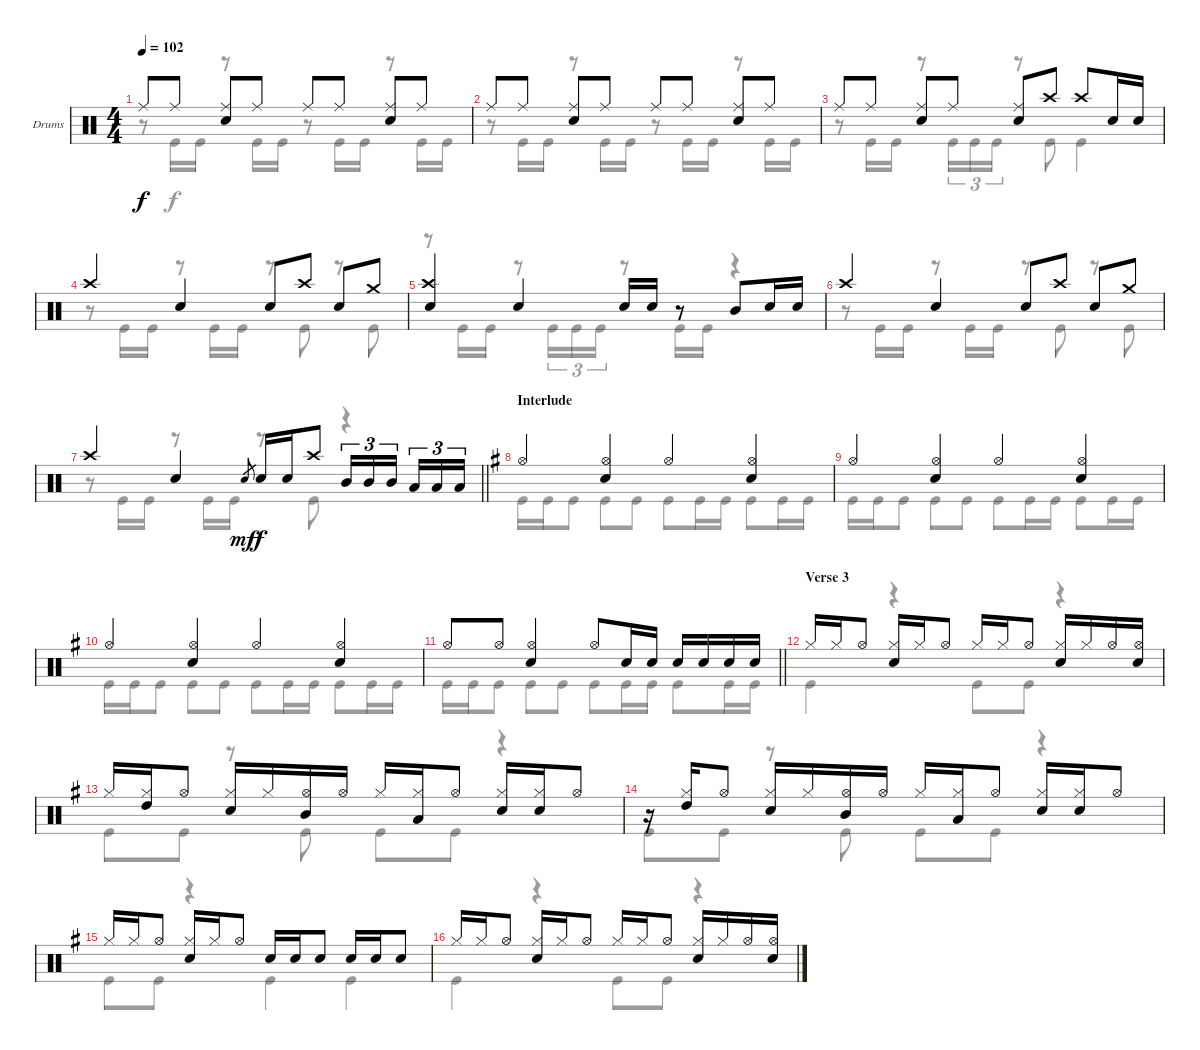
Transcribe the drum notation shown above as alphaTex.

\bracketExtendMode groupsimilarinstruments
\firstSystemTrackNameOrientation horizontal
\otherSystemsTrackNameOrientation horizontal
\track ("Drumkit" "Drums") {instrument percussion}
\staff {score}
\articulation defaults
\voice
\ts (4 4)
\tempo 102
\clef neutral
\ks c "Ride (middle)".8{dy f} "Ride (middle)".8
("Ride (middle)" "Snare (hit) 2").8 "Ride (middle)".8 "Ride (middle)".8 "Ride (middle)".8 ("Ride (middle)" "Snare (hit) 2").8 "Ride (middle)".8 |
"Ride (middle)".8 "Ride (middle)".8 ("Ride (middle)" "Snare (hit) 2").8 "Ride (middle)".8 "Ride (middle)".8 "Ride (middle)".8 ("Ride (middle)" "Snare (hit) 2").8 "Ride (middle)".8 |
"Ride (middle)".8 "Ride (middle)".8 ("Ride (middle)" "Snare (hit) 2").8 "Ride (middle)".8 ("Ride (middle)" "Snare (hit) 2").8 "Crash high (hit)".8 "Crash high (hit)".8 "Snare (hit) 2".16 "Snare (hit) 2".16 |
"Crash high (hit)".4 "Snare (hit) 2".4 "Snare (hit) 2".8 "Crash high (hit)".8 "Snare (hit) 2".8 "Crash medium (hit)".8 |
("Crash high (hit)" "Snare (hit) 2").4 "Snare (hit) 2".4 "Snare (hit) 2".16 "Snare (hit) 2".16 r.8 "Mid Tom (hit)".8 "Snare (hit) 2".16 "Snare (hit) 2".16 |
"Crash high (hit)".4 "Snare (hit) 2".4 "Snare (hit) 2".8 "Crash high (hit)".8 "Snare (hit) 2".8 "Crash medium (hit)".8 |
\barLineRight lightlight "Crash high (hit)".4 "Snare (hit) 2".4 "Snare (hit) 2".8{gr dy mf} "Snare (hit) 2".16{dy f} "Snare (hit) 2".16 "Crash high (hit)".8 "Mid Tom (hit)".16{tu (3 2)} "Mid Tom (hit)".16{tu (3 2)} "Mid Tom (hit)".16{tu (3 2)} "Low Tom (hit)".16{tu (3 2)} "Low Tom (hit)".16{tu (3 2)} "Low Tom (hit)".16{tu (3 2)}
|
\section ("" "Interlude")
\ks g "Hi-Hat (open)".4
("Hi-Hat (open)" "Snare (hit) 2").4 "Hi-Hat (open)".4 ("Hi-Hat (open)" "Snare (hit) 2").4 |
"Hi-Hat (open)".4 ("Hi-Hat (open)" "Snare (hit) 2").4 "Hi-Hat (open)".4 ("Hi-Hat (open)" "Snare (hit) 2").4 |
"Hi-Hat (open)".4 ("Hi-Hat (open)" "Snare (hit) 2").4 "Hi-Hat (open)".4 ("Hi-Hat (open)" "Snare (hit) 2").4 |
\barLineRight lightlight "Hi-Hat (open)".8 "Hi-Hat (open)".8
("Hi-Hat (open)" "Snare (hit) 2").4 "Hi-Hat (open)".8 "Snare (hit) 2".16 "Snare (hit) 2".16 "Snare (hit) 2".16 "Snare (hit) 2".16 "Snare (hit) 2".16 "Snare (hit) 2".16 |
\section ("" "Verse 3")
"Hi-Hat (closed)".16 "Hi-Hat (closed)".16 "Hi-Hat (open)".8 ("Hi-Hat (closed)" "Snare (hit) 2").16 "Hi-Hat (closed)".16 "Hi-Hat (open)".8 "Hi-Hat (closed)".16 "Hi-Hat (closed)".16 "Hi-Hat (open)".8 ("Hi-Hat (closed)" "Snare (hit) 2").16 "Hi-Hat (closed)".16 "Hi-Hat (open)".16 ("Hi-Hat (open)" "Snare (hit) 2").16 |
"Hi-Hat (closed)".16 ("Hi-Hat (closed)" "High Tom (hit)").16 "Hi-Hat (open)".8 ("Hi-Hat (closed)" "Snare (hit) 2").16 "Hi-Hat (closed)".16 ("Hi-Hat (open)" "Mid Tom (hit)").16 "Hi-Hat (open)".16 "Hi-Hat (closed)".16 ("Hi-Hat (closed)" "Low Tom (hit)").16 "Hi-Hat (open)".8 ("Hi-Hat (closed)" "Snare (hit) 2").16 ("Hi-Hat (closed)" "Snare (hit) 2").16 "Hi-Hat (open)".8 |
r.16 ("Hi-Hat (closed)" "High Tom (hit)").16 "Hi-Hat (open)".8 ("Hi-Hat (closed)" "Snare (hit) 2").16 "Hi-Hat (closed)".16 ("Hi-Hat (open)" "Mid Tom (hit)").16 "Hi-Hat (open)".16 "Hi-Hat (closed)".16 ("Hi-Hat (closed)" "Low Tom (hit)").16 "Hi-Hat (open)".8 ("Hi-Hat (closed)" "Snare (hit) 2").16 ("Hi-Hat (closed)" "Snare (hit) 2").16 "Hi-Hat (open)".8 |
"Hi-Hat (closed)".16 "Hi-Hat (closed)".16 "Hi-Hat (open)".8 ("Hi-Hat (closed)" "Snare (hit) 2").16 "Hi-Hat (closed)".16 "Hi-Hat (open)".8 "Snare (hit) 2".16 "Snare (hit) 2".16 "Snare (hit) 2".8 "Snare (hit) 2".16 "Snare (hit) 2".16 "Snare (hit) 2".8 |
"Hi-Hat (closed)".16 "Hi-Hat (closed)".16 "Hi-Hat (open)".8 ("Hi-Hat (closed)" "Snare (hit) 2").16 "Hi-Hat (closed)".16 "Hi-Hat (open)".8 "Hi-Hat (closed)".16 "Hi-Hat (closed)".16 "Hi-Hat (open)".8 ("Hi-Hat (closed)" "Snare (hit) 2").16 "Hi-Hat (closed)".16 "Hi-Hat (open)".16 ("Hi-Hat (open)" "Snare (hit) 2").16
\voice
\clef neutral
\ottava regular
\simile none
\ks c
r.8{dy f} "Kick (hit)".16 "Kick (hit)".16 r.8 "Kick (hit)".16 "Kick (hit)".16 r.8 "Kick (hit)".16 "Kick (hit)".16 r.8 "Kick (hit)".16 "Kick (hit)".16 |
r.8 "Kick (hit)".16 "Kick (hit)".16 r.8 "Kick (hit)".16 "Kick (hit)".16 r.8 "Kick (hit)".16 "Kick (hit)".16 r.8 "Kick (hit)".16 "Kick (hit)".16 |
r.8 "Kick (hit)".16 "Kick (hit)".16 r.8 "Kick (hit)".16{tu (3 2)} "Kick (hit)".16{tu (3 2)} "Kick (hit)".16{tu (3 2)} r.8 "Kick (hit)".8 "Kick (hit)".4 |
r.8 "Kick (hit)".16 "Kick (hit)".16 r.8 "Kick (hit)".16 "Kick (hit)".16 r.8 "Kick (hit)".8 r.8 "Kick (hit)".8 |
r.8 "Kick (hit)".16 "Kick (hit)".16 r.8 "Kick (hit)".16{tu (3 2)} "Kick (hit)".16{tu (3 2)} "Kick (hit)".16{tu (3 2)} r.8 "Kick (hit)".16 "Kick (hit)".16 r.4 |
r.8 "Kick (hit)".16 "Kick (hit)".16 r.8 "Kick (hit)".16 "Kick (hit)".16 r.8 "Kick (hit)".8 r.8 "Kick (hit)".8 |
\barLineRight lightlight
r.8 "Kick (hit)".16 "Kick (hit)".16 r.8 "Kick (hit)".16 "Kick (hit)".16 r.8 "Kick (hit)".8 r.4 |
\ks g "Kick (hit)".16 "Kick (hit)".16 "Kick (hit)".8 "Kick (hit)".8 "Kick (hit)".8 "Kick (hit)".8 "Kick (hit)".16 "Kick (hit)".16 "Kick (hit)".8 "Kick (hit)".16 "Kick (hit)".16
|
"Kick (hit)".16 "Kick (hit)".16 "Kick (hit)".8 "Kick (hit)".8 "Kick (hit)".8 "Kick (hit)".8 "Kick (hit)".16 "Kick (hit)".16 "Kick (hit)".8 "Kick (hit)".16 "Kick (hit)".16 |
"Kick (hit)".16 "Kick (hit)".16 "Kick (hit)".8 "Kick (hit)".8 "Kick (hit)".8 "Kick (hit)".8 "Kick (hit)".16 "Kick (hit)".16 "Kick (hit)".8 "Kick (hit)".16 "Kick (hit)".16 |
\barLineRight lightlight "Kick (hit)".16 "Kick (hit)".16 "Kick (hit)".8 "Kick (hit)".8 "Kick (hit)".8 "Kick (hit)".8 "Kick (hit)".16 "Kick (hit)".16 "Kick (hit)".8 "Kick (hit)".16 "Kick (hit)".16
|
"Kick (hit)".4 r.4 "Kick (hit)".8 "Kick (hit)".8 r.4 |
"Kick (hit)".8 "Kick (hit)".8 r.8 "Kick (hit)".8 "Kick (hit)".8 "Kick (hit)".8 r.4 |
"Kick (hit)".8 "Kick (hit)".8 r.8 "Kick (hit)".8 "Kick (hit)".8 "Kick (hit)".8 r.4 |
"Kick (hit)".8 "Kick (hit)".8 r.4 "Kick (hit)".4 "Kick (hit)".4 |
"Kick (hit)".4 r.4 "Kick (hit)".8 "Kick (hit)".8 r.4
